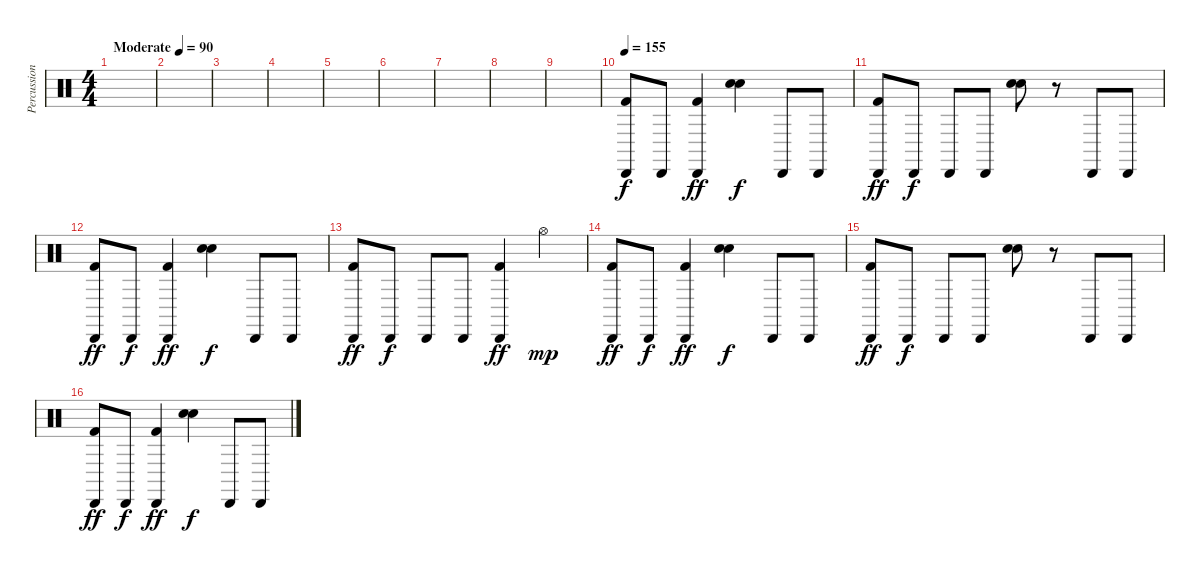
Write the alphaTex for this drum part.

\track ("Percussion" "Percussion") {instrument percussion}
\staff {score}
\articulation defaults
\ts (4 4)
\tempo (90 "Moderate")
\clef neutral
\ks c
|
|
|
|
|
|
|
|
|
\tempo 155
("Cabasa (hit)" "Kick (hit) 2").8 "Cabasa (hit)".8{dy f} ("Cabasa (hit)" "Kick (hit) 2").4{dy ff} ("Electric Snare (hit)" "Hand Clap (hit)").4{dy f} "Cabasa (hit)".8 "Cabasa (hit)".8 |
("Cabasa (hit)" "Kick (hit) 2").8{dy ff} "Cabasa (hit)".8{dy f} "Cabasa (hit)".8 "Cabasa (hit)".8 ("Electric Snare (hit)" "Hand Clap (hit)").8 r.8 "Cabasa (hit)".8 "Cabasa (hit)".8 |
("Cabasa (hit)" "Kick (hit) 2").8{dy ff} "Cabasa (hit)".8{dy f} ("Cabasa (hit)" "Kick (hit) 2").4{dy ff} ("Electric Snare (hit)" "Hand Clap (hit)").4{dy f} "Cabasa (hit)".8 "Cabasa (hit)".8 |
("Cabasa (hit)" "Kick (hit) 2").8{dy ff} "Cabasa (hit)".8{dy f} "Cabasa (hit)".8 "Cabasa (hit)".8 ("Cabasa (hit)" "Kick (hit) 2").4{dy ff} "Hi-Hat (open)".4{dy mp} |
("Cabasa (hit)" "Kick (hit) 2").8{dy ff} "Cabasa (hit)".8{dy f} ("Cabasa (hit)" "Kick (hit) 2").4{dy ff} ("Electric Snare (hit)" "Hand Clap (hit)").4{dy f} "Cabasa (hit)".8 "Cabasa (hit)".8 |
("Cabasa (hit)" "Kick (hit) 2").8{dy ff} "Cabasa (hit)".8{dy f} "Cabasa (hit)".8 "Cabasa (hit)".8 ("Electric Snare (hit)" "Hand Clap (hit)").8 r.8 "Cabasa (hit)".8 "Cabasa (hit)".8 |
("Cabasa (hit)" "Kick (hit) 2").8{dy ff} "Cabasa (hit)".8{dy f} ("Cabasa (hit)" "Kick (hit) 2").4{dy ff} ("Electric Snare (hit)" "Hand Clap (hit)").4{dy f} "Cabasa (hit)".8 "Cabasa (hit)".8
